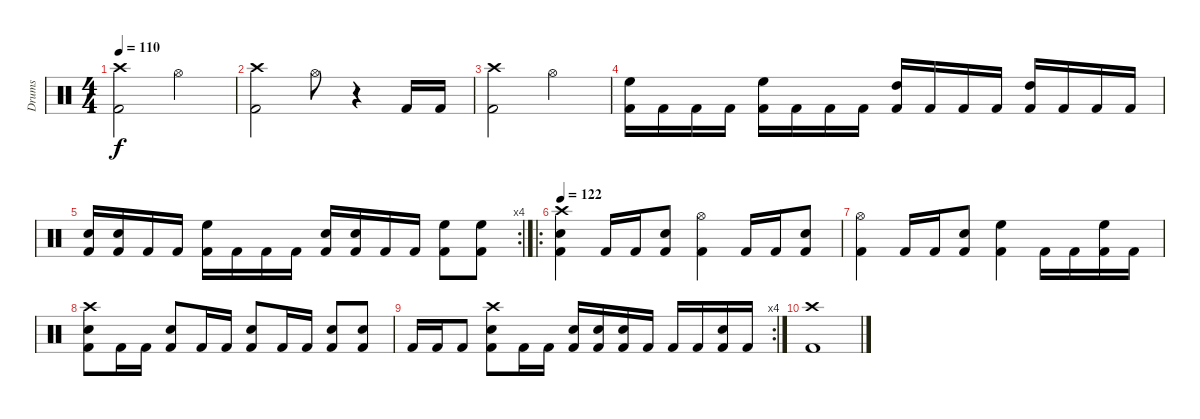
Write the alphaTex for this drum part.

\track ("Drums" "Drums") {instrument percussion}
\staff {score}
\articulation defaults
\ts (4 4)
\tempo 110
\clef neutral
\ks c
("Crash high (hit)" "Kick (hit) 2").2{dy f} "Hi-Hat (open)".2 |
("Crash high (hit)" "Kick (hit) 2").2 "Hi-Hat (open)".8 r.4 "Kick (hit) 2".16 "Kick (hit) 2".16 |
("Crash high (hit)" "Kick (hit) 2").2 "Hi-Hat (open)".2 |
("High Floor Tom (hit)" "Kick (hit) 2").16 "Kick (hit) 2".16 "Kick (hit) 2".16 "Kick (hit) 2".16 ("High Floor Tom (hit)" "Kick (hit) 2").16 "Kick (hit) 2".16 "Kick (hit) 2".16 "Kick (hit) 2".16 ("High Tom (hit)" "Kick (hit) 2").16 "Kick (hit) 2".16 "Kick (hit) 2".16 "Kick (hit) 2".16 ("High Tom (hit)" "Kick (hit) 2").16 "Kick (hit) 2".16 "Kick (hit) 2".16 "Kick (hit) 2".16 |
\rc 4
("Snare (hit) 2" "Kick (hit) 2").16 ("Snare (hit) 2" "Kick (hit) 2").16 "Kick (hit) 2".16 "Kick (hit) 2".16 ("High Floor Tom (hit)" "Kick (hit) 2").16 "Kick (hit) 2".16 "Kick (hit) 2".16 "Kick (hit) 2".16 ("Snare (hit) 2" "Kick (hit) 2").16 ("Snare (hit) 2" "Kick (hit) 2").16 "Kick (hit) 2".16 "Kick (hit) 2".16 ("High Floor Tom (hit)" "Kick (hit) 2").8 ("High Floor Tom (hit)" "Kick (hit) 2").8 |
\ro
\tempo 122
("Crash high (hit)" "Snare (hit) 2" "Kick (hit) 2").4 "Kick (hit) 2".16 "Kick (hit) 2".16 ("Snare (hit) 2" "Kick (hit) 2").8 ("Hi-Hat (open)" "Kick (hit) 2").4 "Kick (hit) 2".16 "Kick (hit) 2".16 ("Snare (hit) 2" "Kick (hit) 2").8 |
("Hi-Hat (open)" "Kick (hit) 2").4 "Kick (hit) 2".16 "Kick (hit) 2".16 ("Snare (hit) 2" "Kick (hit) 2").8 ("High Floor Tom (hit)" "Kick (hit) 2").4 "Kick (hit) 2".16 "Kick (hit) 2".16 ("High Floor Tom (hit)" "Kick (hit) 2").16 "Kick (hit) 2".16 |
("Crash high (hit)" "Snare (hit) 2" "Kick (hit) 2").8 "Kick (hit) 2".16 "Kick (hit) 2".16 ("Snare (hit) 2" "Kick (hit) 2").8 "Kick (hit) 2".16 "Kick (hit) 2".16 ("Snare (hit) 2" "Kick (hit) 2").8 "Kick (hit) 2".16 "Kick (hit) 2".16 ("Snare (hit) 2" "Kick (hit) 2").8 ("Snare (hit) 2" "Kick (hit) 2").8 |
\rc 4 "Kick (hit) 2".16 "Kick (hit) 2".16 "Kick (hit) 2".8
("Crash high (hit)" "Snare (hit) 2" "Kick (hit) 2").8 "Kick (hit) 2".16 "Kick (hit) 2".16 ("Snare (hit) 2" "Kick (hit) 2").16 ("Snare (hit) 2" "Kick (hit) 2").16 ("Snare (hit) 2" "Kick (hit) 2").16 "Kick (hit) 2".16 "Kick (hit) 2".16 "Kick (hit) 2".16 ("Snare (hit) 2" "Kick (hit) 2").16 "Kick (hit) 2".16 |
("Crash high (hit)" "Kick (hit) 2").1
